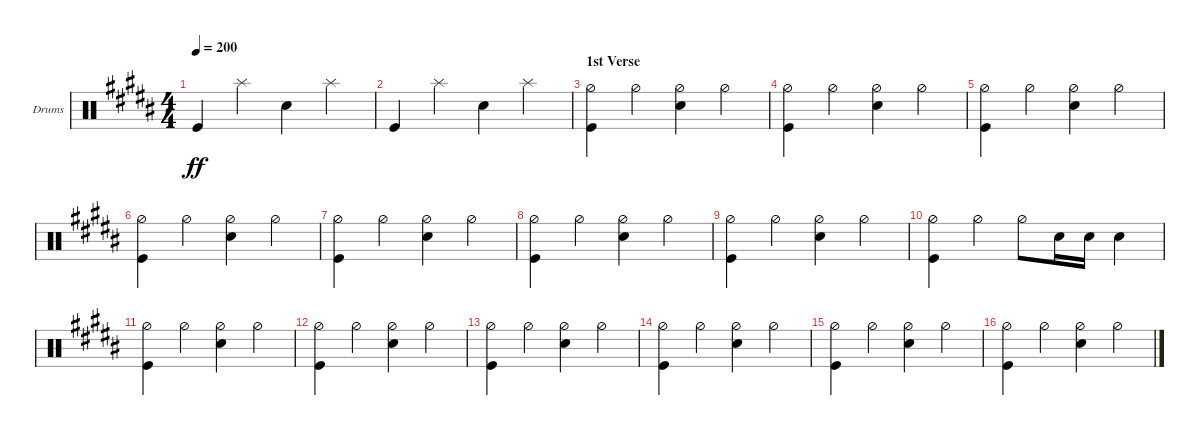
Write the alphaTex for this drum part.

\defaultSystemsLayout 4
\bracketExtendMode groupsimilarinstruments
\firstSystemTrackNameOrientation horizontal
\otherSystemsTrackNameOrientation horizontal
\track ("Drumkit" "Drums") {instrument percussion}
\staff {score}
\articulation defaults
\ts (4 4)
\tempo 200
\clef neutral
\ks b "Kick (hit)".4{dy ff} "Splash (hit)".4 "Snare (hit) 2".4 "Splash (hit)".4
|
"Kick (hit)".4 "Splash (hit)".4 "Snare (hit) 2".4 "Splash (hit)".4 |
\section ("" "1st Verse")
("Hi-Hat (half)" "Kick (hit)").4 "Hi-Hat (half)".4 ("Hi-Hat (half)" "Snare (hit) 2").4 "Hi-Hat (half)".4 |
("Hi-Hat (half)" "Kick (hit)").4 "Hi-Hat (half)".4 ("Hi-Hat (half)" "Snare (hit) 2").4 "Hi-Hat (half)".4 |
("Hi-Hat (half)" "Kick (hit)").4 "Hi-Hat (half)".4 ("Hi-Hat (half)" "Snare (hit) 2").4 "Hi-Hat (half)".4 |
("Hi-Hat (half)" "Kick (hit)").4 "Hi-Hat (half)".4 ("Hi-Hat (half)" "Snare (hit) 2").4 "Hi-Hat (half)".4 |
("Hi-Hat (half)" "Kick (hit)").4 "Hi-Hat (half)".4 ("Hi-Hat (half)" "Snare (hit) 2").4 "Hi-Hat (half)".4 |
("Hi-Hat (half)" "Kick (hit)").4 "Hi-Hat (half)".4 ("Hi-Hat (half)" "Snare (hit) 2").4 "Hi-Hat (half)".4 |
("Hi-Hat (half)" "Kick (hit)").4 "Hi-Hat (half)".4 ("Hi-Hat (half)" "Snare (hit) 2").4 "Hi-Hat (half)".4 |
("Hi-Hat (half)" "Kick (hit)").4 "Hi-Hat (half)".4 "Hi-Hat (half)".8 "Snare (hit) 2".16 "Snare (hit) 2".16 "Snare (hit) 2".4 |
("Hi-Hat (half)" "Kick (hit)").4 "Hi-Hat (half)".4 ("Hi-Hat (half)" "Snare (hit) 2").4 "Hi-Hat (half)".4 |
("Hi-Hat (half)" "Kick (hit)").4 "Hi-Hat (half)".4 ("Hi-Hat (half)" "Snare (hit) 2").4 "Hi-Hat (half)".4 |
("Hi-Hat (half)" "Kick (hit)").4 "Hi-Hat (half)".4 ("Hi-Hat (half)" "Snare (hit) 2").4 "Hi-Hat (half)".4 |
("Hi-Hat (half)" "Kick (hit)").4 "Hi-Hat (half)".4 ("Hi-Hat (half)" "Snare (hit) 2").4 "Hi-Hat (half)".4 |
("Hi-Hat (half)" "Kick (hit)").4 "Hi-Hat (half)".4 ("Hi-Hat (half)" "Snare (hit) 2").4 "Hi-Hat (half)".4 |
("Hi-Hat (half)" "Kick (hit)").4 "Hi-Hat (half)".4 ("Hi-Hat (half)" "Snare (hit) 2").4 "Hi-Hat (half)".4
